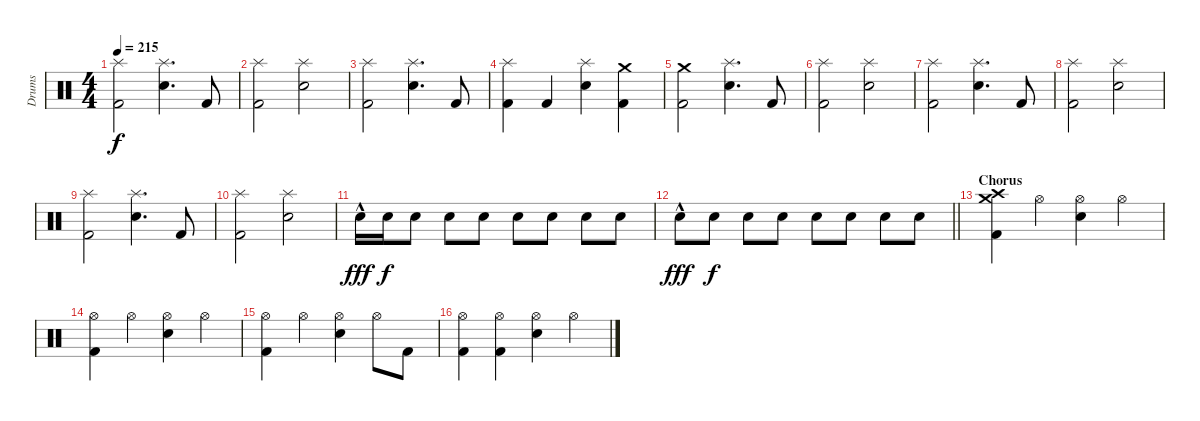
\track ("Drums" "Drums") {instrument percussion}
\staff {score}
\articulation defaults
\ts (4 4)
\tempo 215
\clef neutral
\ks c
("Splash (hit)" "Kick (hit) 2").2{dy f} ("Splash (hit)" "Snare (hit) 2").4{d} "Kick (hit) 2".8 |
("Splash (hit)" "Kick (hit) 2").2 ("Splash (hit)" "Snare (hit) 2").2 |
("Splash (hit)" "Kick (hit) 2").2 ("Splash (hit)" "Snare (hit) 2").4{d} "Kick (hit) 2".8 |
("Splash (hit)" "Kick (hit) 2").4 "Kick (hit) 2".4 ("Splash (hit)" "Snare (hit) 2").4 ("Crash medium (hit)" "Kick (hit) 2").4 |
("Crash medium (hit)" "Kick (hit) 2").2 ("Splash (hit)" "Snare (hit) 2").4{d} "Kick (hit) 2".8 |
("Splash (hit)" "Kick (hit) 2").2 ("Splash (hit)" "Snare (hit) 2").2 |
("Splash (hit)" "Kick (hit) 2").2 ("Splash (hit)" "Snare (hit) 2").4{d} "Kick (hit) 2".8 |
("Splash (hit)" "Kick (hit) 2").2 ("Splash (hit)" "Snare (hit) 2").2 |
("Splash (hit)" "Kick (hit) 2").2 ("Splash (hit)" "Snare (hit) 2").4{d} "Kick (hit) 2".8 |
("Splash (hit)" "Kick (hit) 2").2 ("Splash (hit)" "Snare (hit) 2").2 |
"Snare (hit) 2"{hac}.16{dy fff} "Snare (hit) 2".16{dy f} "Snare (hit) 2".8 "Snare (hit) 2".8 "Snare (hit) 2".8 "Snare (hit) 2".8 "Snare (hit) 2".8 "Snare (hit) 2".8 "Snare (hit) 2".8 |
\barLineRight lightlight "Snare (hit) 2"{hac}.8{dy fff} "Snare (hit) 2".8{dy f} "Snare (hit) 2".8 "Snare (hit) 2".8 "Snare (hit) 2".8 "Snare (hit) 2".8 "Snare (hit) 2".8 "Snare (hit) 2".8
|
\section ("" "Chorus")
("Crash medium (hit)" "Crash high (hit)" "Kick (hit) 2").4 "Hi-Hat (open)".4 ("Hi-Hat (open)" "Electric Snare (hit)").4 "Hi-Hat (open)".4 |
("Hi-Hat (open)" "Kick (hit) 2").4 "Hi-Hat (open)".4 ("Hi-Hat (open)" "Electric Snare (hit)").4 "Hi-Hat (open)".4 |
("Hi-Hat (open)" "Kick (hit) 2").4 "Hi-Hat (open)".4 ("Hi-Hat (open)" "Electric Snare (hit)").4 "Hi-Hat (open)".8 "Kick (hit) 2".8 |
("Hi-Hat (open)" "Kick (hit) 2").4 ("Hi-Hat (open)" "Kick (hit) 2").4 ("Hi-Hat (open)" "Electric Snare (hit)").4 "Hi-Hat (open)".4
